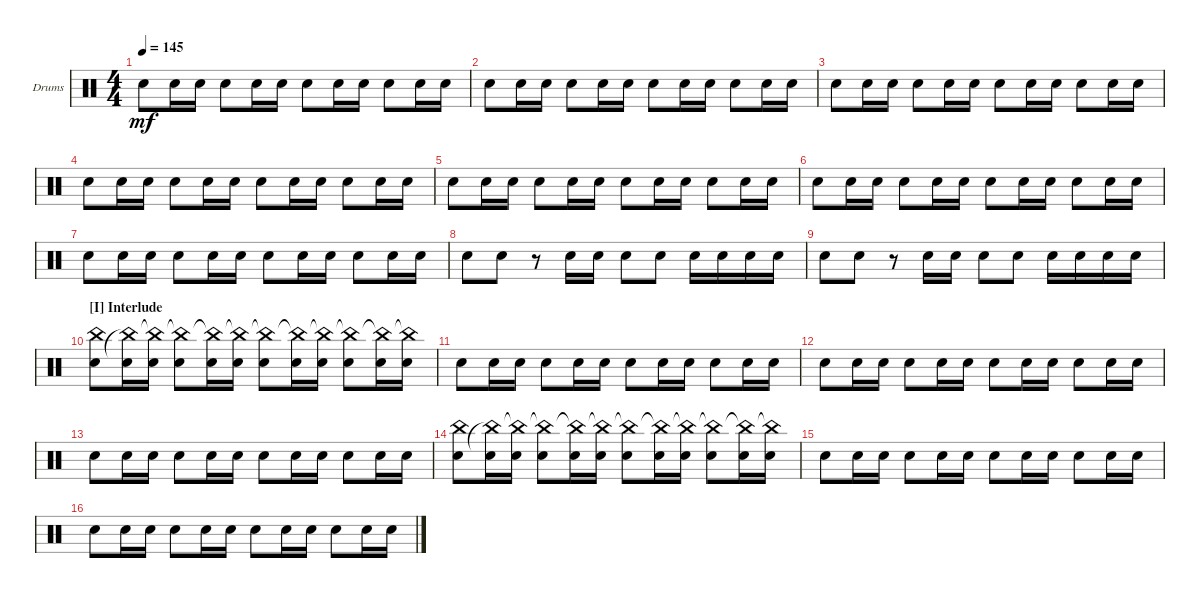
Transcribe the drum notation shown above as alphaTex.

\defaultSystemsLayout 4
\bracketExtendMode groupsimilarinstruments
\firstSystemTrackNameOrientation horizontal
\otherSystemsTrackNameOrientation horizontal
\track ("Drumkit" "Drums") {instrument percussion}
\staff {score}
\articulation defaults
\ts (4 4)
\tempo 145
\clef neutral
\scale
0.333333
\ks c "Snare (hit) 2".8{dy mf} "Snare (hit) 2".16 "Snare (hit) 2".16 "Snare (hit) 2".8 "Snare (hit) 2".16 "Snare (hit) 2".16 "Snare (hit) 2".8 "Snare (hit) 2".16 "Snare (hit) 2".16 "Snare (hit) 2".8 "Snare (hit) 2".16 "Snare (hit) 2".16
|
\scale
0.333333 "Snare (hit) 2".8 "Snare (hit) 2".16 "Snare (hit) 2".16 "Snare (hit) 2".8 "Snare (hit) 2".16 "Snare (hit) 2".16 "Snare (hit) 2".8 "Snare (hit) 2".16 "Snare (hit) 2".16 "Snare (hit) 2".8 "Snare (hit) 2".16 "Snare (hit) 2".16 |
\scale
0.333333 "Snare (hit) 2".8 "Snare (hit) 2".16 "Snare (hit) 2".16 "Snare (hit) 2".8 "Snare (hit) 2".16 "Snare (hit) 2".16 "Snare (hit) 2".8 "Snare (hit) 2".16 "Snare (hit) 2".16 "Snare (hit) 2".8 "Snare (hit) 2".16 "Snare (hit) 2".16 |
\scale
0.333333 "Snare (hit) 2".8 "Snare (hit) 2".16 "Snare (hit) 2".16 "Snare (hit) 2".8 "Snare (hit) 2".16 "Snare (hit) 2".16 "Snare (hit) 2".8 "Snare (hit) 2".16 "Snare (hit) 2".16 "Snare (hit) 2".8 "Snare (hit) 2".16 "Snare (hit) 2".16 |
\scale
0.333333 "Snare (hit) 2".8 "Snare (hit) 2".16 "Snare (hit) 2".16 "Snare (hit) 2".8 "Snare (hit) 2".16 "Snare (hit) 2".16 "Snare (hit) 2".8 "Snare (hit) 2".16 "Snare (hit) 2".16 "Snare (hit) 2".8 "Snare (hit) 2".16 "Snare (hit) 2".16 |
\scale
0.333333 "Snare (hit) 2".8 "Snare (hit) 2".16 "Snare (hit) 2".16 "Snare (hit) 2".8 "Snare (hit) 2".16 "Snare (hit) 2".16 "Snare (hit) 2".8 "Snare (hit) 2".16 "Snare (hit) 2".16 "Snare (hit) 2".8 "Snare (hit) 2".16 "Snare (hit) 2".16 |
\scale
0.333333 "Snare (hit) 2".8 "Snare (hit) 2".16 "Snare (hit) 2".16 "Snare (hit) 2".8 "Snare (hit) 2".16 "Snare (hit) 2".16 "Snare (hit) 2".8 "Snare (hit) 2".16 "Snare (hit) 2".16 "Snare (hit) 2".8 "Snare (hit) 2".16 "Snare (hit) 2".16 |
\scale
0.333333 "Snare (hit) 2".8 "Snare (hit) 2".8 r.8 "Snare (hit) 2".16 "Snare (hit) 2".16 "Snare (hit) 2".8 "Snare (hit) 2".8 "Snare (hit) 2".16 "Snare (hit) 2".16 "Snare (hit) 2".16 "Snare (hit) 2".16 |
\scale
0.333333 "Snare (hit) 2".8 "Snare (hit) 2".8 r.8 "Snare (hit) 2".16 "Snare (hit) 2".16 "Snare (hit) 2".8 "Snare (hit) 2".8 "Snare (hit) 2".16 "Snare (hit) 2".16 "Snare (hit) 2".16 "Snare (hit) 2".16 |
\section ("I" "Interlude")
\scale
0.333333 ("China (hit)" "Snare (hit) 2").8 ("Snare (hit) 2" "China (hit)"{t}).16 ("Snare (hit) 2" "China (hit)"{t}).16 ("Snare (hit) 2" "China (hit)"{t}).8 ("Snare (hit) 2" "China (hit)"{t}).16 ("Snare (hit) 2" "China (hit)"{t}).16 ("Snare (hit) 2" "China (hit)"{t}).8 ("Snare (hit) 2" "China (hit)"{t}).16 ("Snare (hit) 2" "China (hit)"{t}).16 ("Snare (hit) 2" "China (hit)"{t}).8 ("Snare (hit) 2" "China (hit)"{t}).16 ("Snare (hit) 2" "China (hit)"{t}).16 |
\scale
0.333333 "Snare (hit) 2".8 "Snare (hit) 2".16 "Snare (hit) 2".16 "Snare (hit) 2".8 "Snare (hit) 2".16 "Snare (hit) 2".16 "Snare (hit) 2".8 "Snare (hit) 2".16 "Snare (hit) 2".16 "Snare (hit) 2".8 "Snare (hit) 2".16 "Snare (hit) 2".16 |
\scale
0.333333 "Snare (hit) 2".8 "Snare (hit) 2".16 "Snare (hit) 2".16 "Snare (hit) 2".8 "Snare (hit) 2".16 "Snare (hit) 2".16 "Snare (hit) 2".8 "Snare (hit) 2".16 "Snare (hit) 2".16 "Snare (hit) 2".8 "Snare (hit) 2".16 "Snare (hit) 2".16 |
\scale
0.333333 "Snare (hit) 2".8 "Snare (hit) 2".16 "Snare (hit) 2".16 "Snare (hit) 2".8 "Snare (hit) 2".16 "Snare (hit) 2".16 "Snare (hit) 2".8 "Snare (hit) 2".16 "Snare (hit) 2".16 "Snare (hit) 2".8 "Snare (hit) 2".16 "Snare (hit) 2".16 |
\scale
0.333333 ("China (hit)" "Snare (hit) 2").8 ("Snare (hit) 2" "China (hit)"{t}).16 ("Snare (hit) 2" "China (hit)"{t}).16 ("Snare (hit) 2" "China (hit)"{t}).8 ("Snare (hit) 2" "China (hit)"{t}).16 ("Snare (hit) 2" "China (hit)"{t}).16 ("Snare (hit) 2" "China (hit)"{t}).8 ("Snare (hit) 2" "China (hit)"{t}).16 ("Snare (hit) 2" "China (hit)"{t}).16 ("Snare (hit) 2" "China (hit)"{t}).8 ("Snare (hit) 2" "China (hit)"{t}).16 ("Snare (hit) 2" "China (hit)"{t}).16 |
\scale
0.333333 "Snare (hit) 2".8 "Snare (hit) 2".16 "Snare (hit) 2".16 "Snare (hit) 2".8 "Snare (hit) 2".16 "Snare (hit) 2".16 "Snare (hit) 2".8 "Snare (hit) 2".16 "Snare (hit) 2".16 "Snare (hit) 2".8 "Snare (hit) 2".16 "Snare (hit) 2".16 |
\scale
0.333333 "Snare (hit) 2".8 "Snare (hit) 2".16 "Snare (hit) 2".16 "Snare (hit) 2".8 "Snare (hit) 2".16 "Snare (hit) 2".16 "Snare (hit) 2".8 "Snare (hit) 2".16 "Snare (hit) 2".16 "Snare (hit) 2".8 "Snare (hit) 2".16 "Snare (hit) 2".16
